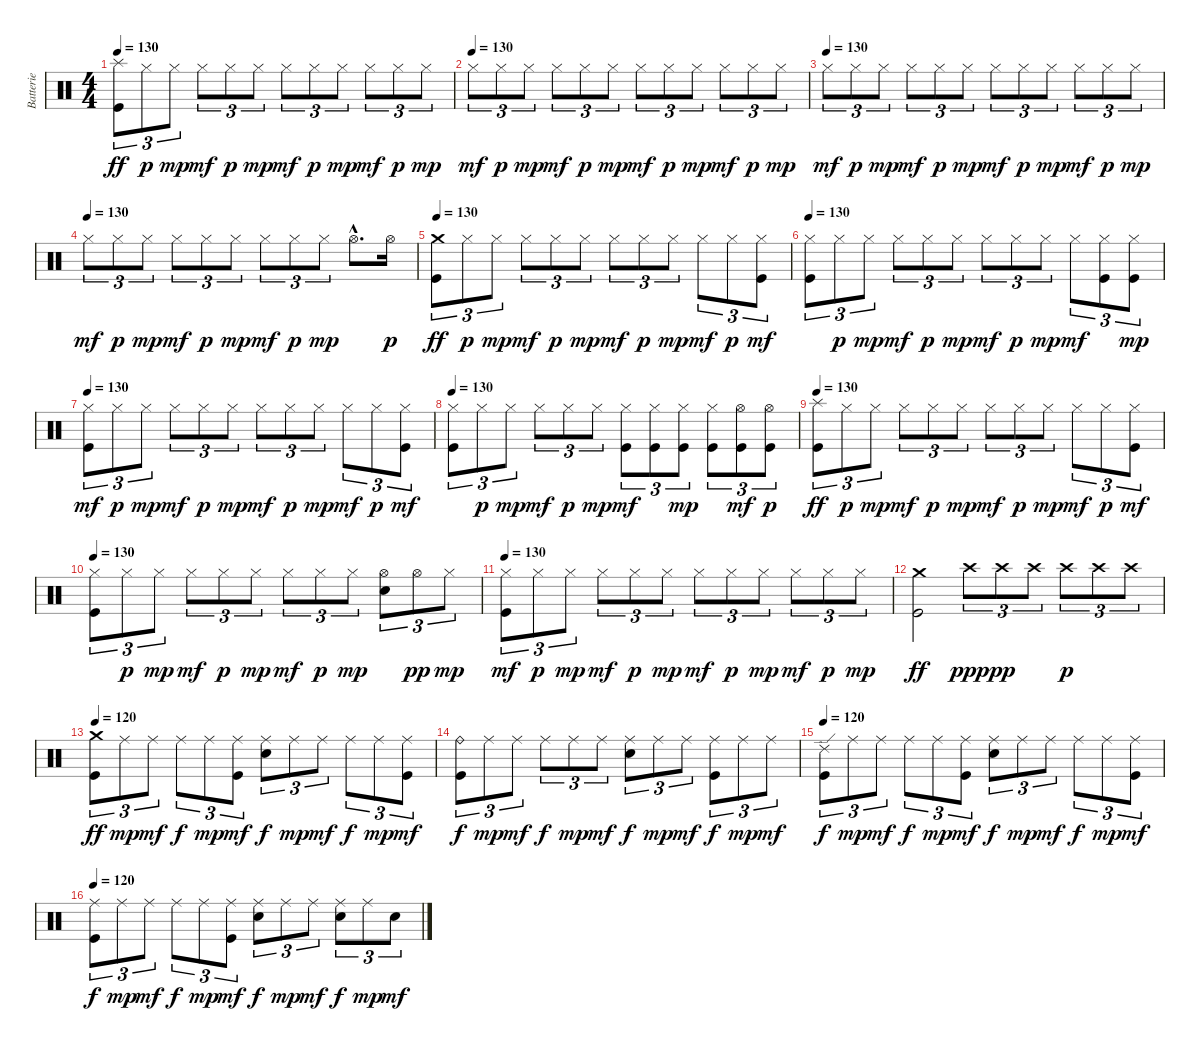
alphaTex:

\track ("Batterie" "Batterie") {instrument percussion}
\staff {score}
\articulation defaults
\ts (4 4)
\tempo 130
\clef neutral
\ks c
("Splash (hit)" "Kick (hit)").8{tu (3 2) dy ff} "Hi-Hat (closed)".8{tu (3 2) dy p} "Hi-Hat (closed)".8{tu (3 2) dy mp} "Hi-Hat (closed)".8{tu (3 2) dy mf} "Hi-Hat (closed)".8{tu (3 2) dy p} "Hi-Hat (closed)".8{tu (3 2) dy mp} "Hi-Hat (closed)".8{tu (3 2) dy mf} "Hi-Hat (closed)".8{tu (3 2) dy p} "Hi-Hat (closed)".8{tu (3 2) dy mp} "Hi-Hat (closed)".8{tu (3 2) dy mf} "Hi-Hat (closed)".8{tu (3 2) dy p} "Hi-Hat (closed)".8{tu (3 2) dy mp} |
\tempo (130)
"Hi-Hat (closed)".8{tu (3 2) dy mf} "Hi-Hat (closed)".8{tu (3 2) dy p} "Hi-Hat (closed)".8{tu (3 2) dy mp} "Hi-Hat (closed)".8{tu (3 2) dy mf} "Hi-Hat (closed)".8{tu (3 2) dy p} "Hi-Hat (closed)".8{tu (3 2) dy mp} "Hi-Hat (closed)".8{tu (3 2) dy mf} "Hi-Hat (closed)".8{tu (3 2) dy p} "Hi-Hat (closed)".8{tu (3 2) dy mp} "Hi-Hat (closed)".8{tu (3 2) dy mf} "Hi-Hat (closed)".8{tu (3 2) dy p} "Hi-Hat (closed)".8{tu (3 2) dy mp} |
\tempo (130)
"Hi-Hat (closed)".8{tu (3 2) dy mf} "Hi-Hat (closed)".8{tu (3 2) dy p} "Hi-Hat (closed)".8{tu (3 2) dy mp} "Hi-Hat (closed)".8{tu (3 2) dy mf} "Hi-Hat (closed)".8{tu (3 2) dy p} "Hi-Hat (closed)".8{tu (3 2) dy mp} "Hi-Hat (closed)".8{tu (3 2) dy mf} "Hi-Hat (closed)".8{tu (3 2) dy p} "Hi-Hat (closed)".8{tu (3 2) dy mp} "Hi-Hat (closed)".8{tu (3 2) dy mf} "Hi-Hat (closed)".8{tu (3 2) dy p} "Hi-Hat (closed)".8{tu (3 2) dy mp} |
\tempo (130)
"Hi-Hat (closed)".8{tu (3 2) dy mf} "Hi-Hat (closed)".8{tu (3 2) dy p} "Hi-Hat (closed)".8{tu (3 2) dy mp} "Hi-Hat (closed)".8{tu (3 2) dy mf} "Hi-Hat (closed)".8{tu (3 2) dy p} "Hi-Hat (closed)".8{tu (3 2) dy mp} "Hi-Hat (closed)".8{tu (3 2) dy mf} "Hi-Hat (closed)".8{tu (3 2) dy p} "Hi-Hat (closed)".8{tu (3 2) dy mp} "Hi-Hat (open)"{hac}.8{d} "Hi-Hat (open)".16{dy p} |
\tempo 130
("Crash medium (hit)" "Kick (hit)").8{tu (3 2) dy ff} "Hi-Hat (closed)".8{tu (3 2) dy p} "Hi-Hat (closed)".8{tu (3 2) dy mp} "Hi-Hat (closed)".8{tu (3 2) dy mf} "Hi-Hat (closed)".8{tu (3 2) dy p} "Hi-Hat (closed)".8{tu (3 2) dy mp} "Hi-Hat (closed)".8{tu (3 2) dy mf} "Hi-Hat (closed)".8{tu (3 2) dy p} "Hi-Hat (closed)".8{tu (3 2) dy mp} "Hi-Hat (closed)".8{tu (3 2) dy mf} "Hi-Hat (closed)".8{tu (3 2) dy p} ("Hi-Hat (closed)" "Kick (hit)").8{tu (3 2) dy mf} |
\tempo 130
("Hi-Hat (closed)" "Kick (hit)").8{tu (3 2)} "Hi-Hat (closed)".8{tu (3 2) dy p} "Hi-Hat (closed)".8{tu (3 2) dy mp} "Hi-Hat (closed)".8{tu (3 2) dy mf} "Hi-Hat (closed)".8{tu (3 2) dy p} "Hi-Hat (closed)".8{tu (3 2) dy mp} "Hi-Hat (closed)".8{tu (3 2) dy mf} "Hi-Hat (closed)".8{tu (3 2) dy p} "Hi-Hat (closed)".8{tu (3 2) dy mp} "Hi-Hat (closed)".8{tu (3 2) dy mf} ("Hi-Hat (closed)" "Kick (hit)").8{tu (3 2)} ("Hi-Hat (closed)" "Kick (hit)").8{tu (3 2) dy mp} |
\tempo 130
("Hi-Hat (closed)" "Kick (hit)").8{tu (3 2) dy mf} "Hi-Hat (closed)".8{tu (3 2) dy p} "Hi-Hat (closed)".8{tu (3 2) dy mp} "Hi-Hat (closed)".8{tu (3 2) dy mf} "Hi-Hat (closed)".8{tu (3 2) dy p} "Hi-Hat (closed)".8{tu (3 2) dy mp} "Hi-Hat (closed)".8{tu (3 2) dy mf} "Hi-Hat (closed)".8{tu (3 2) dy p} "Hi-Hat (closed)".8{tu (3 2) dy mp} "Hi-Hat (closed)".8{tu (3 2) dy mf} "Hi-Hat (closed)".8{tu (3 2) dy p} ("Hi-Hat (closed)" "Kick (hit)").8{tu (3 2) dy mf} |
\tempo 130
("Hi-Hat (closed)" "Kick (hit)").8{tu (3 2)} "Hi-Hat (closed)".8{tu (3 2) dy p} "Hi-Hat (closed)".8{tu (3 2) dy mp} "Hi-Hat (closed)".8{tu (3 2) dy mf} "Hi-Hat (closed)".8{tu (3 2) dy p} "Hi-Hat (closed)".8{tu (3 2) dy mp} ("Hi-Hat (closed)" "Kick (hit)").8{tu (3 2) dy mf} ("Hi-Hat (closed)" "Kick (hit)").8{tu (3 2)} ("Hi-Hat (closed)" "Kick (hit)").8{tu (3 2) dy mp} ("Hi-Hat (closed)" "Kick (hit)").8{tu (3 2)} ("Hi-Hat (open)" "Kick (hit)").8{tu (3 2) dy mf} ("Hi-Hat (open)" "Kick (hit)").8{tu (3 2) dy p} |
\tempo 130
("Splash (hit)" "Kick (hit)").8{tu (3 2) dy ff} "Hi-Hat (closed)".8{tu (3 2) dy p} "Hi-Hat (closed)".8{tu (3 2) dy mp} "Hi-Hat (closed)".8{tu (3 2) dy mf} "Hi-Hat (closed)".8{tu (3 2) dy p} "Hi-Hat (closed)".8{tu (3 2) dy mp} "Hi-Hat (closed)".8{tu (3 2) dy mf} "Hi-Hat (closed)".8{tu (3 2) dy p} "Hi-Hat (closed)".8{tu (3 2) dy mp} "Hi-Hat (closed)".8{tu (3 2) dy mf} "Hi-Hat (closed)".8{tu (3 2) dy p} ("Hi-Hat (closed)" "Kick (hit)").8{tu (3 2) dy mf} |
\tempo 130
("Hi-Hat (closed)" "Kick (hit)").8{tu (3 2)} "Hi-Hat (closed)".8{tu (3 2) dy p} "Hi-Hat (closed)".8{tu (3 2) dy mp} "Hi-Hat (closed)".8{tu (3 2) dy mf} "Hi-Hat (closed)".8{tu (3 2) dy p} "Hi-Hat (closed)".8{tu (3 2) dy mp} "Hi-Hat (closed)".8{tu (3 2) dy mf} "Hi-Hat (closed)".8{tu (3 2) dy p} "Hi-Hat (closed)".8{tu (3 2) dy mp} ("Hi-Hat (open)" "Snare (hit) 2").8{tu (3 2)} "Hi-Hat (open)".8{tu (3 2) dy pp} "Hi-Hat (closed)".8{tu (3 2) dy mp} |
\tempo 130
("Hi-Hat (closed)" "Kick (hit)").8{tu (3 2) dy mf} "Hi-Hat (closed)".8{tu (3 2) dy p} "Hi-Hat (closed)".8{tu (3 2) dy mp} "Hi-Hat (closed)".8{tu (3 2) dy mf} "Hi-Hat (closed)".8{tu (3 2) dy p} "Hi-Hat (closed)".8{tu (3 2) dy mp} "Hi-Hat (closed)".8{tu (3 2) dy mf} "Hi-Hat (closed)".8{tu (3 2) dy p} "Hi-Hat (closed)".8{tu (3 2) dy mp} "Hi-Hat (closed)".8{tu (3 2) dy mf} "Hi-Hat (closed)".8{tu (3 2) dy p} "Hi-Hat (closed)".8{tu (3 2) dy mp} |
("Crash medium (hit)" "Kick (hit)").2{dy ff} "Crash high (hit)".8{tu (3 2) dy ppp} "Crash high (hit)".8{tu (3 2) dy pp} "Crash high (hit)".8{tu (3 2)} "Crash high (hit)".8{tu (3 2) dy p} "Crash high (hit)".8{tu (3 2)} "Crash high (hit)".8{tu (3 2)} |
\tempo 120
("Crash medium (hit)" "Kick (hit)").8{tu (3 2) dy ff} "Ride (middle)".8{tu (3 2) dy mp} "Ride (middle)".8{tu (3 2) dy mf} "Ride (middle)".8{tu (3 2) dy f} "Ride (middle)".8{tu (3 2) dy mp} ("Ride (middle)" "Kick (hit)").8{tu (3 2) dy mf} ("Ride (middle)" "Snare (hit) 2").8{tu (3 2) dy f} "Ride (middle)".8{tu (3 2) dy mp} "Ride (middle)".8{tu (3 2) dy mf} "Ride (middle)".8{tu (3 2) dy f} "Ride (middle)".8{tu (3 2) dy mp} ("Ride (middle)" "Kick (hit)").8{tu (3 2) dy mf} |
("Ride (bell)" "Kick (hit)").8{tu (3 2) dy f} "Ride (middle)".8{tu (3 2) dy mp} "Ride (middle)".8{tu (3 2) dy mf} "Ride (middle)".8{tu (3 2) dy f} "Ride (middle)".8{tu (3 2) dy mp} "Ride (middle)".8{tu (3 2) dy mf} ("Ride (middle)" "Snare (hit) 2").8{tu (3 2) dy f} "Ride (middle)".8{tu (3 2) dy mp} "Ride (middle)".8{tu (3 2) dy mf} ("Ride (middle)" "Kick (hit)").8{tu (3 2) dy f} "Ride (middle)".8{tu (3 2) dy mp} "Ride (middle)".8{tu (3 2) dy mf} |
\tempo 120
("Ride (edge) 2" "Kick (hit)").8{tu (3 2) dy f} "Ride (middle)".8{tu (3 2) dy mp} "Ride (middle)".8{tu (3 2) dy mf} "Ride (middle)".8{tu (3 2) dy f} "Ride (middle)".8{tu (3 2) dy mp} ("Ride (middle)" "Kick (hit)").8{tu (3 2) dy mf} ("Ride (middle)" "Snare (hit) 2").8{tu (3 2) dy f} "Ride (middle)".8{tu (3 2) dy mp} "Ride (middle)".8{tu (3 2) dy mf} "Ride (middle)".8{tu (3 2) dy f} "Ride (middle)".8{tu (3 2) dy mp} ("Ride (middle)" "Kick (hit)").8{tu (3 2) dy mf} |
\tempo 120
("Ride (middle)" "Kick (hit)").8{tu (3 2) dy f} "Ride (middle)".8{tu (3 2) dy mp} "Ride (middle)".8{tu (3 2) dy mf} "Ride (middle)".8{tu (3 2) dy f} "Ride (middle)".8{tu (3 2) dy mp} ("Ride (middle)" "Kick (hit)").8{tu (3 2) dy mf} ("Ride (middle)" "Snare (hit) 2").8{tu (3 2) dy f} "Ride (middle)".8{tu (3 2) dy mp} "Ride (middle)".8{tu (3 2) dy mf} ("Ride (middle)" "Snare (hit) 2").8{tu (3 2) dy f} "Ride (middle)".8{tu (3 2) dy mp} "Snare (hit) 2".8{tu (3 2) dy mf}
